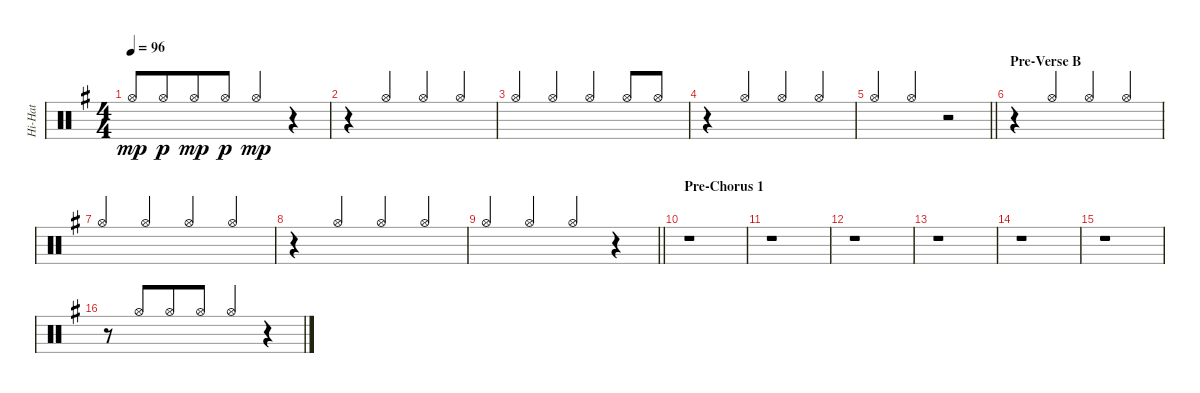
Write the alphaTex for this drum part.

\track ("Hi-Hat" "Hi-Hat") {instrument percussion}
\staff {score}
\articulation defaults
\ts (4 4)
\tempo 96
\clef neutral
\ks g "Hi-Hat (open)".8{dy mp beam Up} "Hi-Hat (open)".8{dy p beam Up beam merge} "Hi-Hat (open)".8{dy mp beam Up} "Hi-Hat (open)".8{dy p beam Up} "Hi-Hat (open)".4{dy mp beam Up}
r.4 |
r.4 "Hi-Hat (open)".4{beam Up} "Hi-Hat (open)".4{beam Up} "Hi-Hat (open)".4{beam Up} |
"Hi-Hat (open)".4{beam Up} "Hi-Hat (open)".4{beam Up} "Hi-Hat (open)".4{beam Up} "Hi-Hat (open)".8{beam Up} "Hi-Hat (open)".8{beam Up} |
r.4 "Hi-Hat (open)".4{beam Up} "Hi-Hat (open)".4{beam Up} "Hi-Hat (open)".4{beam Up} |
\barLineRight lightlight "Hi-Hat (open)".4{beam Up} "Hi-Hat (open)".4{beam Up}
r.2 |
\section ("" "Pre-Verse B")
r.4 "Hi-Hat (open)".4{beam Up} "Hi-Hat (open)".4{beam Up} "Hi-Hat (open)".4{beam Up} |
"Hi-Hat (open)".4{beam Up} "Hi-Hat (open)".4{beam Up} "Hi-Hat (open)".4{beam Up} "Hi-Hat (open)".4{beam Up} |
r.4 "Hi-Hat (open)".4{beam Up} "Hi-Hat (open)".4{beam Up} "Hi-Hat (open)".4{beam Up} |
\barLineRight lightlight "Hi-Hat (open)".4{beam Up} "Hi-Hat (open)".4{beam Up} "Hi-Hat (open)".4{beam Up}
r.4 |
\section ("" "Pre-Chorus 1")
r.1 |
r.1 |
r.1 |
r.1 |
r.1 |
r.1 |
r.8 "Hi-Hat (open)".8{beam Up beam merge} "Hi-Hat (open)".8{beam Up} "Hi-Hat (open)".8{beam Up} "Hi-Hat (open)".4{beam Up} r.4
